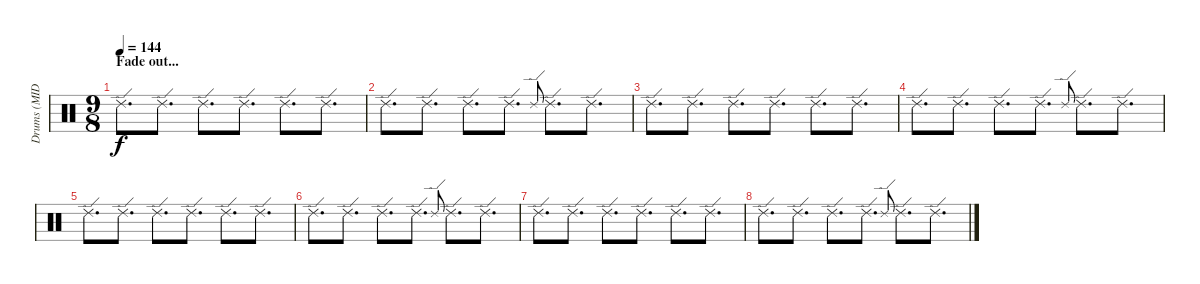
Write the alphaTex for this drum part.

\track ("Drums (MIDI!)" "Drums (MID") {instrument percussion}
\staff {score}
\articulation defaults
\ts (9 8)
\section ("" "Fade out...")
\tempo 144
\clef neutral
\ks c "Ride (edge) 2".8{d dy f} "Ride (edge) 2".8{d} "Ride (edge) 2".8{d} "Ride (edge) 2".8{d} "Ride (edge) 2".8{d} "Ride (edge) 2".8{d}
|
"Ride (edge) 2".8{d} "Ride (edge) 2".8{d} "Ride (edge) 2".8{d} "Ride (edge) 2".8{d} "Ride (edge) 2".8{gr onbeat} "Ride (edge) 2".8{d} "Ride (edge) 2".8{d} |
"Ride (edge) 2".8{d} "Ride (edge) 2".8{d} "Ride (edge) 2".8{d} "Ride (edge) 2".8{d} "Ride (edge) 2".8{d} "Ride (edge) 2".8{d} |
"Ride (edge) 2".8{d} "Ride (edge) 2".8{d} "Ride (edge) 2".8{d} "Ride (edge) 2".8{d} "Ride (edge) 2".8{gr onbeat} "Ride (edge) 2".8{d} "Ride (edge) 2".8{d} |
"Ride (edge) 2".8{d} "Ride (edge) 2".8{d} "Ride (edge) 2".8{d} "Ride (edge) 2".8{d} "Ride (edge) 2".8{d} "Ride (edge) 2".8{d} |
"Ride (edge) 2".8{d} "Ride (edge) 2".8{d} "Ride (edge) 2".8{d} "Ride (edge) 2".8{d} "Ride (edge) 2".8{gr onbeat} "Ride (edge) 2".8{d} "Ride (edge) 2".8{d} |
"Ride (edge) 2".8{d} "Ride (edge) 2".8{d} "Ride (edge) 2".8{d} "Ride (edge) 2".8{d} "Ride (edge) 2".8{d} "Ride (edge) 2".8{d} |
"Ride (edge) 2".8{d} "Ride (edge) 2".8{d} "Ride (edge) 2".8{d} "Ride (edge) 2".8{d} "Ride (edge) 2".8{gr onbeat} "Ride (edge) 2".8{d} "Ride (edge) 2".8{d}
